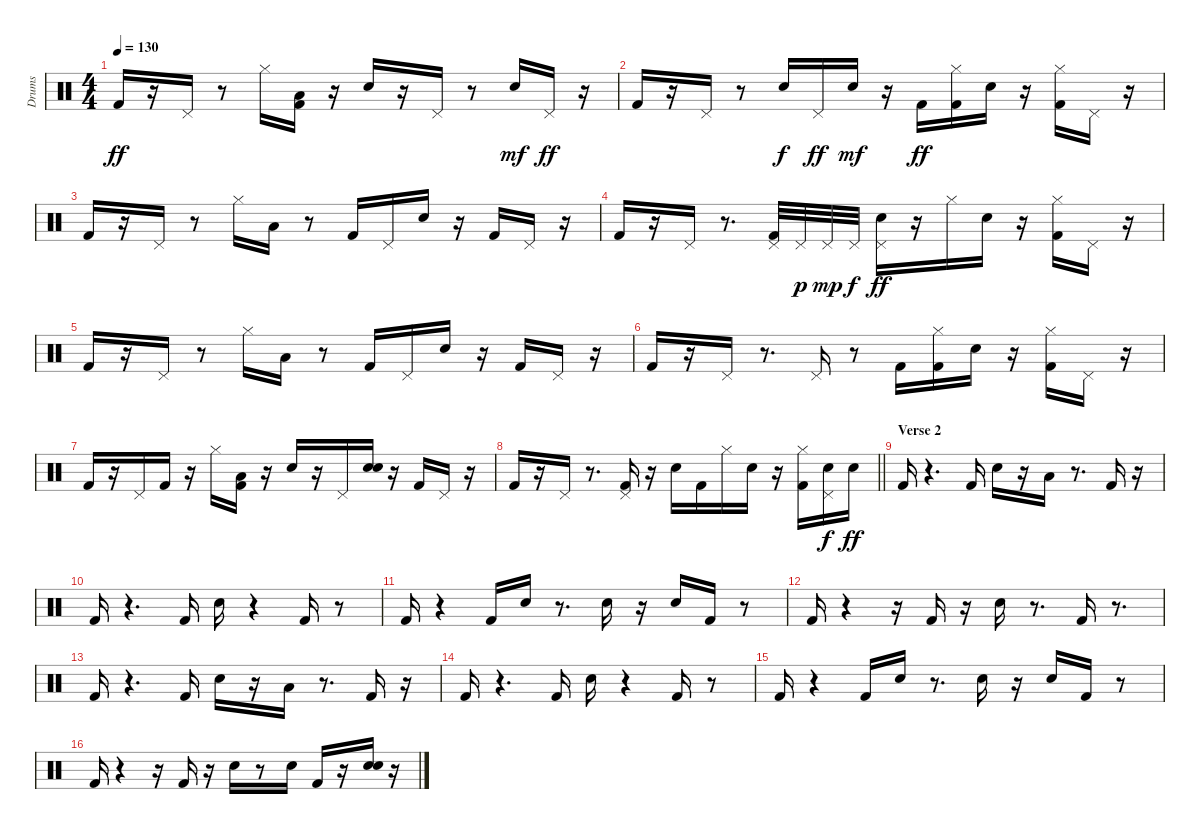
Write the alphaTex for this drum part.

\track ("Drums" "Drums") {instrument percussion}
\staff {score}
\articulation defaults
\ts (4 4)
\tempo 130
\clef neutral
\ks c "Kick (hit) 2".16{dy ff}
r.16 "Pedal Hi-Hat (hit)".16 r.8 "Hi-Hat (closed)".16 ("Kick (hit) 2" "Low Floor Tom (hit)").16 r.16 "Electric Snare (hit)".16 r.16 "Pedal Hi-Hat (hit)".16 r.8 "Snare (hit) 2".16{dy mf} "Pedal Hi-Hat (hit)".16{dy ff} r.16 |
"Kick (hit) 2".16 r.16 "Pedal Hi-Hat (hit)".16 r.8 "Snare (hit) 2".16{dy f} "Pedal Hi-Hat (hit)".16{dy ff} "Snare (hit) 2".16{dy mf} r.16 "Kick (hit) 2".16{dy ff} ("Kick (hit) 2" "Hi-Hat (closed)").16 "Electric Snare (hit)".16 r.16 ("Kick (hit) 2" "Hi-Hat (closed)").16 "Pedal Hi-Hat (hit)".16 r.16 |
"Kick (hit) 2".16 r.16 "Pedal Hi-Hat (hit)".16 r.8 "Hi-Hat (closed)".16 "Low Floor Tom (hit)".16 r.8 "Kick (hit) 2".16 "Pedal Hi-Hat (hit)".16 "Electric Snare (hit)".16 r.16 "Kick (hit) 2".16 "Pedal Hi-Hat (hit)".16 r.16 |
"Kick (hit) 2".16 r.16 "Pedal Hi-Hat (hit)".16 r.8{d} ("Kick (hit) 2" "Pedal Hi-Hat (hit)").32 "Pedal Hi-Hat (hit)".32{dy p} "Pedal Hi-Hat (hit)".32{dy mp} "Pedal Hi-Hat (hit)".32{dy f} ("Electric Snare (hit)" "Pedal Hi-Hat (hit)").16{dy ff} r.16 "Hi-Hat (closed)".16 "Electric Snare (hit)".16 r.16 ("Kick (hit) 2" "Hi-Hat (closed)").16 "Pedal Hi-Hat (hit)".16 r.16 |
"Kick (hit) 2".16 r.16 "Pedal Hi-Hat (hit)".16 r.8 "Hi-Hat (closed)".16 "Low Floor Tom (hit)".16 r.8 "Kick (hit) 2".16 "Pedal Hi-Hat (hit)".16 "Electric Snare (hit)".16 r.16 "Kick (hit) 2".16 "Pedal Hi-Hat (hit)".16 r.16 |
"Kick (hit) 2".16 r.16 "Pedal Hi-Hat (hit)".16 r.8{d} "Pedal Hi-Hat (hit)".16 r.8 "Kick (hit) 2".16 ("Kick (hit) 2" "Hi-Hat (closed)").16 "Electric Snare (hit)".16 r.16 ("Kick (hit) 2" "Hi-Hat (closed)").16 "Pedal Hi-Hat (hit)".16 r.16 |
"Kick (hit) 2".16 r.16 "Pedal Hi-Hat (hit)".16 "Kick (hit) 2".16 r.16 "Hi-Hat (closed)".16 ("Kick (hit) 2" "Low Floor Tom (hit)").16 r.16 "Electric Snare (hit)".16 r.16 "Pedal Hi-Hat (hit)".16 ("Snare (hit) 2" "Hand Clap (hit)").16 r.16 "Kick (hit) 2".16 "Pedal Hi-Hat (hit)".16 r.16 |
\barLineRight lightlight "Kick (hit) 2".16
r.16 "Pedal Hi-Hat (hit)".16 r.8{d} ("Kick (hit) 2" "Pedal Hi-Hat (hit)").16 r.16 "Electric Snare (hit)".16 "Kick (hit) 2".16 "Hi-Hat (closed)".16 "Electric Snare (hit)".16 r.16 ("Kick (hit) 2" "Hi-Hat (closed)").16 ("Electric Snare (hit)" "Pedal Hi-Hat (hit)").16{dy f} "Electric Snare (hit)".16{dy ff} |
\section ("" "Verse 2")
"Kick (hit) 2".16 r.4{d} "Kick (hit) 2".16 "Electric Snare (hit)".16 r.16 "Low Floor Tom (hit)".16 r.8{d} "Kick (hit) 2".16 r.16 |
"Kick (hit) 2".16 r.4{d} "Kick (hit) 2".16 "Electric Snare (hit)".16 r.4 "Kick (hit) 2".16 r.8 |
"Kick (hit) 2".16 r.4 "Kick (hit) 2".16 "Electric Snare (hit)".16 r.8{d} "Electric Snare (hit)".16 r.16 "Hand Clap (hit)".16 "Kick (hit) 2".16 r.8 |
"Kick (hit) 2".16 r.4 r.16 "Kick (hit) 2".16 r.16 "Electric Snare (hit)".16 r.8{d} "Kick (hit) 2".16 r.8{d} |
"Kick (hit) 2".16 r.4{d} "Kick (hit) 2".16 "Electric Snare (hit)".16 r.16 "Low Floor Tom (hit)".16 r.8{d} "Kick (hit) 2".16 r.16 |
"Kick (hit) 2".16 r.4{d} "Kick (hit) 2".16 "Electric Snare (hit)".16 r.4 "Kick (hit) 2".16 r.8 |
"Kick (hit) 2".16 r.4 "Kick (hit) 2".16 "Electric Snare (hit)".16 r.8{d} "Electric Snare (hit)".16 r.16 "Hand Clap (hit)".16 "Kick (hit) 2".16 r.8 |
"Kick (hit) 2".16 r.4 r.16 "Kick (hit) 2".16 r.16 "Electric Snare (hit)".16 r.8 "Electric Snare (hit)".16 "Kick (hit) 2".16 r.16 ("Snare (hit) 2" "Hand Clap (hit)").16 r.16
